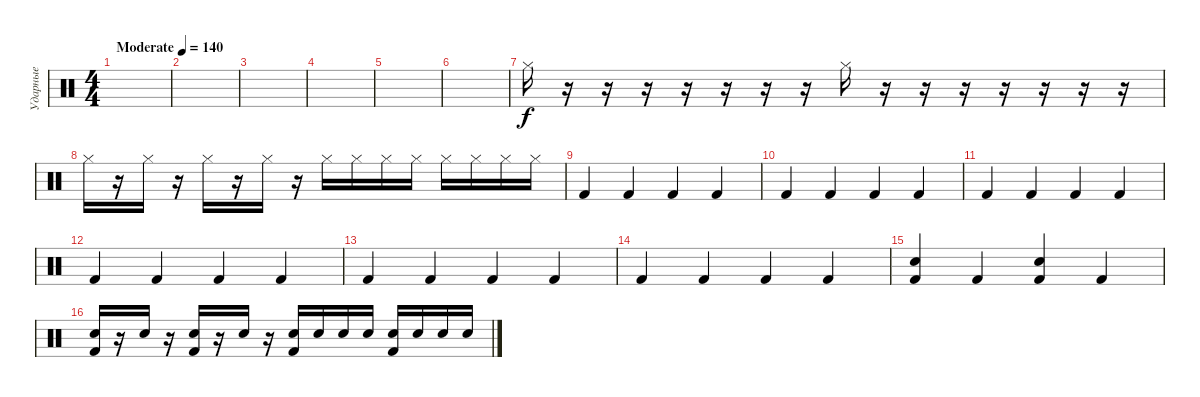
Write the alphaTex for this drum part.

\track ("Ударные" "Ударные") {instrument percussion}
\staff {score}
\articulation defaults
\ts (4 4)
\tempo (140 "Moderate")
\clef neutral
\ks c
|
|
|
|
|
|
"Hi-Hat (closed)".16 r.16 r.16 r.16 r.16 r.16 r.16 r.16 "Hi-Hat (closed)".16 r.16 r.16 r.16 r.16 r.16 r.16 r.16 |
"Hi-Hat (closed)".16 r.16 "Hi-Hat (closed)".16 r.16 "Hi-Hat (closed)".16 r.16 "Hi-Hat (closed)".16 r.16 "Hi-Hat (closed)".16 "Hi-Hat (closed)".16 "Hi-Hat (closed)".16 "Hi-Hat (closed)".16 "Hi-Hat (closed)".16 "Hi-Hat (closed)".16 "Hi-Hat (closed)".16 "Hi-Hat (closed)".16 |
"Kick (hit) 2".4 "Kick (hit) 2".4 "Kick (hit) 2".4 "Kick (hit) 2".4 |
"Kick (hit) 2".4 "Kick (hit) 2".4 "Kick (hit) 2".4 "Kick (hit) 2".4 |
"Kick (hit) 2".4 "Kick (hit) 2".4 "Kick (hit) 2".4 "Kick (hit) 2".4 |
"Kick (hit) 2".4 "Kick (hit) 2".4 "Kick (hit) 2".4 "Kick (hit) 2".4 |
"Kick (hit) 2".4 "Kick (hit) 2".4 "Kick (hit) 2".4 "Kick (hit) 2".4 |
"Kick (hit) 2".4 "Kick (hit) 2".4 "Kick (hit) 2".4 "Kick (hit) 2".4 |
("Hand Clap (hit)" "Kick (hit) 2").4 "Kick (hit) 2".4 ("Hand Clap (hit)" "Kick (hit) 2").4 "Kick (hit) 2".4 |
("Hand Clap (hit)" "Kick (hit) 2").16 r.16 "Hand Clap (hit)".16 r.16 ("Hand Clap (hit)" "Kick (hit) 2").16 r.16 "Hand Clap (hit)".16 r.16 ("Hand Clap (hit)" "Kick (hit) 2").16 "Hand Clap (hit)".16 "Hand Clap (hit)".16 "Hand Clap (hit)".16 ("Hand Clap (hit)" "Kick (hit) 2").16 "Hand Clap (hit)".16 "Hand Clap (hit)".16 "Hand Clap (hit)".16
